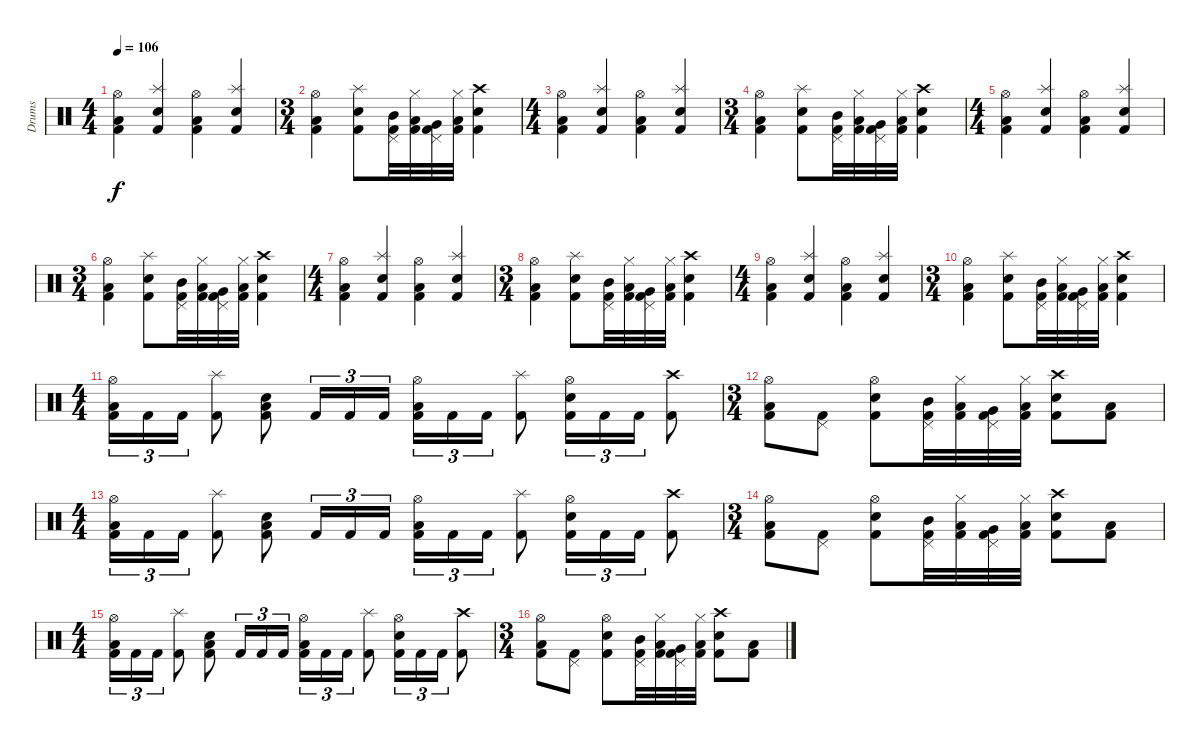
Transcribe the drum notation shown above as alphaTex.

\track ("Drums" "Drums") {instrument percussion}
\staff {score}
\articulation defaults
\ts (4 4)
\tempo 106
\clef neutral
\ks c
("Hi-Hat (open)" "Low Tom (hit)" "Kick (hit) 2").4{dy f} ("Splash (hit)" "Electric Snare (hit)" "Kick (hit) 2").4 ("Hi-Hat (open)" "Low Tom (hit)" "Kick (hit) 2").4 ("Splash (hit)" "Electric Snare (hit)" "Kick (hit) 2").4 |
\ts (3 4)
("Hi-Hat (open)" "Low Tom (hit)" "Kick (hit) 2").4 ("Splash (hit)" "Electric Snare (hit)" "Kick (hit) 2").8 ("Mid Tom (hit)" "Pedal Hi-Hat (hit)" "Kick (hit) 2").32 ("Low Tom (hit)" "Hi-Hat (closed)" "Kick (hit) 2").32 ("Very Low Tom (hit)" "Pedal Hi-Hat (hit)" "Kick (hit) 2").32 ("Low Floor Tom (hit)" "Hi-Hat (closed)" "Kick (hit) 2").32 ("Crash high (hit)" "Electric Snare (hit)" "Kick (hit) 2").4 |
\ts (4 4)
("Hi-Hat (open)" "Low Tom (hit)" "Kick (hit) 2").4 ("Splash (hit)" "Electric Snare (hit)" "Kick (hit) 2").4 ("Hi-Hat (open)" "Low Tom (hit)" "Kick (hit) 2").4 ("Splash (hit)" "Electric Snare (hit)" "Kick (hit) 2").4 |
\ts (3 4)
("Hi-Hat (open)" "Low Tom (hit)" "Kick (hit) 2").4 ("Splash (hit)" "Electric Snare (hit)" "Kick (hit) 2").8 ("Mid Tom (hit)" "Pedal Hi-Hat (hit)" "Kick (hit) 2").32 ("Low Tom (hit)" "Hi-Hat (closed)" "Kick (hit) 2").32 ("Very Low Tom (hit)" "Pedal Hi-Hat (hit)" "Kick (hit) 2").32 ("Low Floor Tom (hit)" "Hi-Hat (closed)" "Kick (hit) 2").32 ("Crash high (hit)" "Electric Snare (hit)" "Kick (hit) 2").4 |
\ts (4 4)
("Hi-Hat (open)" "Low Tom (hit)" "Kick (hit) 2").4 ("Splash (hit)" "Electric Snare (hit)" "Kick (hit) 2").4 ("Hi-Hat (open)" "Low Tom (hit)" "Kick (hit) 2").4 ("Splash (hit)" "Electric Snare (hit)" "Kick (hit) 2").4 |
\ts (3 4)
("Hi-Hat (open)" "Low Tom (hit)" "Kick (hit) 2").4 ("Splash (hit)" "Electric Snare (hit)" "Kick (hit) 2").8 ("Mid Tom (hit)" "Pedal Hi-Hat (hit)" "Kick (hit) 2").32 ("Low Tom (hit)" "Hi-Hat (closed)" "Kick (hit) 2").32 ("Very Low Tom (hit)" "Pedal Hi-Hat (hit)" "Kick (hit) 2").32 ("Low Floor Tom (hit)" "Hi-Hat (closed)" "Kick (hit) 2").32 ("Crash high (hit)" "Electric Snare (hit)" "Kick (hit) 2").4 |
\ts (4 4)
("Hi-Hat (open)" "Low Tom (hit)" "Kick (hit) 2").4 ("Splash (hit)" "Electric Snare (hit)" "Kick (hit) 2").4 ("Hi-Hat (open)" "Low Tom (hit)" "Kick (hit) 2").4 ("Splash (hit)" "Electric Snare (hit)" "Kick (hit) 2").4 |
\ts (3 4)
("Hi-Hat (open)" "Low Tom (hit)" "Kick (hit) 2").4 ("Splash (hit)" "Electric Snare (hit)" "Kick (hit) 2").8 ("Mid Tom (hit)" "Pedal Hi-Hat (hit)" "Kick (hit) 2").32 ("Low Tom (hit)" "Hi-Hat (closed)" "Kick (hit) 2").32 ("Very Low Tom (hit)" "Pedal Hi-Hat (hit)" "Kick (hit) 2").32 ("Low Floor Tom (hit)" "Hi-Hat (closed)" "Kick (hit) 2").32 ("Crash high (hit)" "Electric Snare (hit)" "Kick (hit) 2").4 |
\ts (4 4)
("Hi-Hat (open)" "Low Tom (hit)" "Kick (hit) 2").4 ("Splash (hit)" "Electric Snare (hit)" "Kick (hit) 2").4 ("Hi-Hat (open)" "Low Tom (hit)" "Kick (hit) 2").4 ("Splash (hit)" "Electric Snare (hit)" "Kick (hit) 2").4 |
\ts (3 4)
("Hi-Hat (open)" "Low Tom (hit)" "Kick (hit) 2").4 ("Splash (hit)" "Electric Snare (hit)" "Kick (hit) 2").8 ("Mid Tom (hit)" "Pedal Hi-Hat (hit)" "Kick (hit) 2").32 ("Low Tom (hit)" "Hi-Hat (closed)" "Kick (hit) 2").32 ("Very Low Tom (hit)" "Pedal Hi-Hat (hit)" "Kick (hit) 2").32 ("Low Floor Tom (hit)" "Hi-Hat (closed)" "Kick (hit) 2").32 ("Crash high (hit)" "Electric Snare (hit)" "Kick (hit) 2").4 |
\ts (4 4)
("Hi-Hat (open)" "Low Tom (hit)" "Kick (hit) 2").16{tu (3 2)} "Kick (hit) 2".16{tu (3 2)} "Kick (hit) 2".16{tu (3 2)} ("Splash (hit)" "Kick (hit) 2").8 ("Low Tom (hit)" "Electric Snare (hit)" "Kick (hit) 2").8 "Kick (hit) 2".16{tu (3 2)} "Kick (hit) 2".16{tu (3 2)} "Kick (hit) 2".16{tu (3 2)} ("Hi-Hat (open)" "Low Tom (hit)" "Kick (hit) 2").16{tu (3 2)} "Kick (hit) 2".16{tu (3 2)} "Kick (hit) 2".16{tu (3 2)} ("Splash (hit)" "Kick (hit) 2").8 ("Hi-Hat (open)" "Electric Snare (hit)" "Kick (hit) 2").16{tu (3 2)} "Kick (hit) 2".16{tu (3 2)} "Kick (hit) 2".16{tu (3 2)} ("Crash high (hit)" "Kick (hit) 2").8 |
\ts (3 4)
("Hi-Hat (open)" "Low Tom (hit)" "Kick (hit) 2").8 ("Pedal Hi-Hat (hit)" "Kick (hit) 2").8 ("Hi-Hat (open)" "Electric Snare (hit)" "Kick (hit) 2").8 ("Mid Tom (hit)" "Pedal Hi-Hat (hit)" "Kick (hit) 2").32 ("Low Tom (hit)" "Hi-Hat (closed)" "Kick (hit) 2").32 ("Very Low Tom (hit)" "Pedal Hi-Hat (hit)" "Kick (hit) 2").32 ("Low Floor Tom (hit)" "Hi-Hat (closed)" "Kick (hit) 2").32 ("Crash high (hit)" "Electric Snare (hit)" "Kick (hit) 2").8 ("Low Tom (hit)" "Kick (hit) 2").8 |
\ts (4 4)
("Hi-Hat (open)" "Low Tom (hit)" "Kick (hit) 2").16{tu (3 2)} "Kick (hit) 2".16{tu (3 2)} "Kick (hit) 2".16{tu (3 2)} ("Splash (hit)" "Kick (hit) 2").8 ("Low Tom (hit)" "Electric Snare (hit)" "Kick (hit) 2").8 "Kick (hit) 2".16{tu (3 2)} "Kick (hit) 2".16{tu (3 2)} "Kick (hit) 2".16{tu (3 2)} ("Hi-Hat (open)" "Low Tom (hit)" "Kick (hit) 2").16{tu (3 2)} "Kick (hit) 2".16{tu (3 2)} "Kick (hit) 2".16{tu (3 2)} ("Splash (hit)" "Kick (hit) 2").8 ("Hi-Hat (open)" "Electric Snare (hit)" "Kick (hit) 2").16{tu (3 2)} "Kick (hit) 2".16{tu (3 2)} "Kick (hit) 2".16{tu (3 2)} ("Crash high (hit)" "Kick (hit) 2").8 |
\ts (3 4)
("Hi-Hat (open)" "Low Tom (hit)" "Kick (hit) 2").8 ("Pedal Hi-Hat (hit)" "Kick (hit) 2").8 ("Hi-Hat (open)" "Electric Snare (hit)" "Kick (hit) 2").8 ("Mid Tom (hit)" "Pedal Hi-Hat (hit)" "Kick (hit) 2").32 ("Low Tom (hit)" "Hi-Hat (closed)" "Kick (hit) 2").32 ("Very Low Tom (hit)" "Pedal Hi-Hat (hit)" "Kick (hit) 2").32 ("Low Floor Tom (hit)" "Hi-Hat (closed)" "Kick (hit) 2").32 ("Crash high (hit)" "Electric Snare (hit)" "Kick (hit) 2").8 ("Low Tom (hit)" "Kick (hit) 2").8 |
\ts (4 4)
("Hi-Hat (open)" "Low Tom (hit)" "Kick (hit) 2").16{tu (3 2)} "Kick (hit) 2".16{tu (3 2)} "Kick (hit) 2".16{tu (3 2)} ("Splash (hit)" "Kick (hit) 2").8 ("Low Tom (hit)" "Electric Snare (hit)" "Kick (hit) 2").8 "Kick (hit) 2".16{tu (3 2)} "Kick (hit) 2".16{tu (3 2)} "Kick (hit) 2".16{tu (3 2)} ("Hi-Hat (open)" "Low Tom (hit)" "Kick (hit) 2").16{tu (3 2)} "Kick (hit) 2".16{tu (3 2)} "Kick (hit) 2".16{tu (3 2)} ("Splash (hit)" "Kick (hit) 2").8 ("Hi-Hat (open)" "Electric Snare (hit)" "Kick (hit) 2").16{tu (3 2)} "Kick (hit) 2".16{tu (3 2)} "Kick (hit) 2".16{tu (3 2)} ("Crash high (hit)" "Kick (hit) 2").8 |
\ts (3 4)
("Hi-Hat (open)" "Low Tom (hit)" "Kick (hit) 2").8 ("Pedal Hi-Hat (hit)" "Kick (hit) 2").8 ("Hi-Hat (open)" "Electric Snare (hit)" "Kick (hit) 2").8 ("Mid Tom (hit)" "Pedal Hi-Hat (hit)" "Kick (hit) 2").32 ("Low Tom (hit)" "Hi-Hat (closed)" "Kick (hit) 2").32 ("Very Low Tom (hit)" "Pedal Hi-Hat (hit)" "Kick (hit) 2").32 ("Low Floor Tom (hit)" "Hi-Hat (closed)" "Kick (hit) 2").32 ("Crash high (hit)" "Electric Snare (hit)" "Kick (hit) 2").8 ("Low Tom (hit)" "Kick (hit) 2").8
